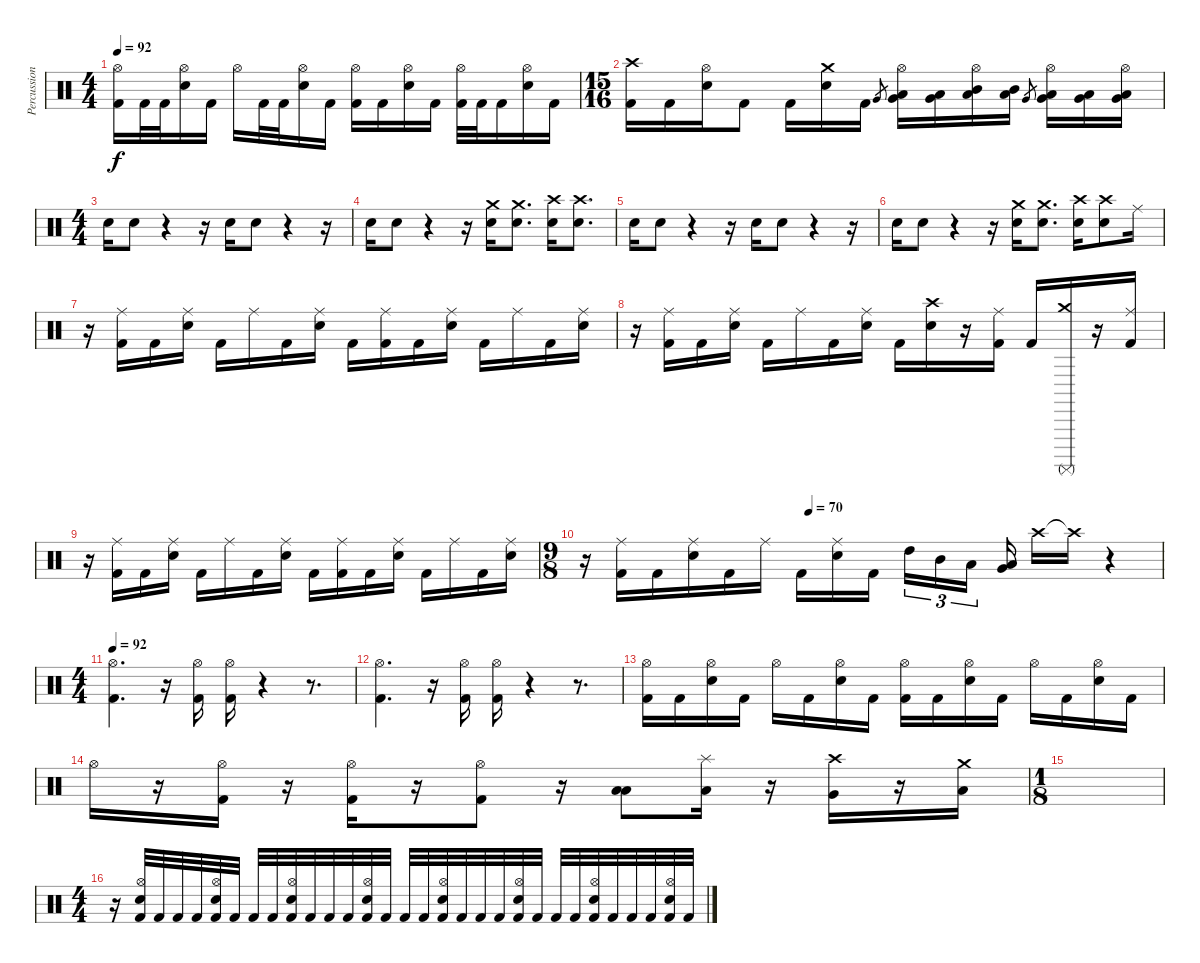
\track ("Percussion" "Percussion") {instrument percussion}
\staff {score}
\articulation defaults
\ts (4 4)
\tempo 92
\clef neutral
\ks c
("Kick (hit) 2" "Hi-Hat (open)").16{dy f} "Kick (hit) 2".32 "Kick (hit) 2".32 ("Electric Snare (hit)" "Hi-Hat (open)").16 "Kick (hit) 2".16 "Hi-Hat (open)".16 "Kick (hit) 2".32 "Kick (hit) 2".32 ("Electric Snare (hit)" "Hi-Hat (open)").16 "Kick (hit) 2".16 ("Kick (hit) 2" "Hi-Hat (open)").16 "Kick (hit) 2".16 ("Electric Snare (hit)" "Hi-Hat (open)").16 "Kick (hit) 2".16 ("Kick (hit) 2" "Hi-Hat (open)").32 "Kick (hit) 2".32 "Kick (hit) 2".16 ("Electric Snare (hit)" "Hi-Hat (open)").16 "Kick (hit) 2".16 |
\ts (15 16)
("Kick (hit) 2" "Crash high (hit)").16 "Kick (hit) 2".16 ("Electric Snare (hit)" "Hi-Hat (open)").16 "Kick (hit) 2".8 "Kick (hit) 2".16 ("Electric Snare (hit)" "Crash medium (hit)").16 "Kick (hit) 2".16 "Very Low Tom (hit)".8{gr} ("Low Tom (hit)" "Very Low Tom (hit)" "Hi-Hat (open)").16 ("Low Tom (hit)" "Very Low Tom (hit)").16 ("Mid Tom (hit)" "Low Floor Tom (hit)" "Hi-Hat (open)").16 ("Mid Tom (hit)" "Low Floor Tom (hit)").16 "Very Low Tom (hit)".8{gr} ("Low Tom (hit)" "Very Low Tom (hit)" "Hi-Hat (open)").16 ("Low Tom (hit)" "Very Low Tom (hit)").16 ("Low Floor Tom (hit)" "Very Low Tom (hit)" "Hi-Hat (open)").16 |
\ts (4 4)
"Snare (hit) 2".16 "Snare (hit) 2".8 r.4 r.16 "Snare (hit) 2".16 "Snare (hit) 2".8 r.4 r.16 |
"Snare (hit) 2".16 "Snare (hit) 2".8 r.4 r.16 ("Crash medium (hit)" "Snare (hit) 2").16 ("Crash medium (hit)" "Snare (hit) 2").8{d} ("Crash high (hit)" "Snare (hit) 2").16 ("Crash high (hit)" "Snare (hit) 2").8{d} |
"Snare (hit) 2".16 "Snare (hit) 2".8 r.4 r.16 "Snare (hit) 2".16 "Snare (hit) 2".8 r.4 r.16 |
"Snare (hit) 2".16 "Snare (hit) 2".8 r.4 r.16 ("Crash medium (hit)" "Snare (hit) 2").16 ("Crash medium (hit)" "Snare (hit) 2").8{d} ("Crash high (hit)" "Snare (hit) 2").16 ("Crash high (hit)" "Snare (hit) 2").8 "Ride (middle)".16 |
r.16 ("Kick (hit) 2" "Ride (middle)").16 "Kick (hit) 2".16 ("Electric Snare (hit)" "Ride (middle)").16 "Kick (hit) 2".16 "Ride (middle)".16 "Kick (hit) 2".16 ("Electric Snare (hit)" "Ride (middle)").16 "Kick (hit) 2".16 ("Kick (hit) 2" "Ride (middle)").16 "Kick (hit) 2".16 ("Electric Snare (hit)" "Ride (middle)").16 "Kick (hit) 2".16 "Ride (middle)".16 "Kick (hit) 2".16 ("Electric Snare (hit)" "Ride (middle)").16 |
r.16 ("Kick (hit) 2" "Ride (middle)").16 "Kick (hit) 2".16 ("Electric Snare (hit)" "Ride (middle)").16 "Kick (hit) 2".16 "Ride (middle)".16 "Kick (hit) 2".16 ("Electric Snare (hit)" "Ride (middle)").16 "Kick (hit) 2".16 ("Electric Snare (hit)" "Crash high (hit)").16 r.16 ("Kick (hit) 2" "Ride (middle)").16 "Kick (hit) 2".16 ("Surdo (mute)" "Crash medium (hit)").16 r.16 ("Kick (hit) 2" "Ride (middle)").16 |
r.16 ("Kick (hit) 2" "Ride (middle)").16 "Kick (hit) 2".16 ("Electric Snare (hit)" "Ride (middle)").16 "Kick (hit) 2".16 "Ride (middle)".16 "Kick (hit) 2".16 ("Electric Snare (hit)" "Ride (middle)").16 "Kick (hit) 2".16 ("Kick (hit) 2" "Ride (middle)").16 "Kick (hit) 2".16 ("Electric Snare (hit)" "Ride (middle)").16 "Kick (hit) 2".16 "Ride (middle)".16 "Kick (hit) 2".16 ("Electric Snare (hit)" "Ride (middle)").16 |
\ts (9 8)
\tempo (70 0.3888888888888889)
r.16 ("Kick (hit) 2" "Ride (middle)").16 "Kick (hit) 2".16 ("Electric Snare (hit)" "Ride (middle)").16 "Kick (hit) 2".16 "Ride (middle)".16 "Kick (hit) 2".16 ("Electric Snare (hit)" "Ride (middle)").16 "Kick (hit) 2".16{beam splitsecondary} "High Tom (hit)".16{tu (3 2)} "Mid Tom (hit)".16{tu (3 2)} "Low Tom (hit)".16{tu (3 2) beam splitsecondary} ("Very Low Tom (hit)" "Low Floor Tom (hit)").16 "Crash high (hit)".16 "Crash high (hit)"{t}.16 r.4 |
\ts (4 4)
\tempo 92
("Hi-Hat (open)" "Kick (hit) 2").4{d} r.16 ("Kick (hit) 2" "Hi-Hat (open)").16 ("Kick (hit) 2" "Hi-Hat (open)").16 r.4 r.8{d} |
("Hi-Hat (open)" "Kick (hit) 2").4{d} r.16 ("Kick (hit) 2" "Hi-Hat (open)").16 ("Kick (hit) 2" "Hi-Hat (open)").16 r.4 r.8{d} |
("Kick (hit) 2" "Hi-Hat (open)").16 "Kick (hit) 2".16 ("Electric Snare (hit)" "Hi-Hat (open)").16 "Kick (hit) 2".16 "Hi-Hat (open)".16 "Kick (hit) 2".16 ("Electric Snare (hit)" "Hi-Hat (open)").16 "Kick (hit) 2".16 ("Kick (hit) 2" "Hi-Hat (open)").16 "Kick (hit) 2".16 ("Electric Snare (hit)" "Hi-Hat (open)").16 "Kick (hit) 2".16 "Hi-Hat (open)".16 "Kick (hit) 2".16 ("Electric Snare (hit)" "Hi-Hat (open)").16 "Kick (hit) 2".16 |
"Hi-Hat (open)".16 r.16 ("Kick (hit) 2" "Hi-Hat (open)").16 r.16 ("Kick (hit) 2" "Hi-Hat (open)").16 r.16 ("Kick (hit) 2" "Hi-Hat (open)").8 r.16 ("Low Tom (hit)" "Low Tom (hit)").8 ("Low Tom (hit)" "Splash (hit)").16 r.16 ("Very Low Tom (hit)" "Crash high (hit)").16 r.16 ("Low Tom (hit)" "Crash medium (hit)").16 |
\ts (1 8)
|
\ts (4 4)
r.16 ("Kick (hit) 2" "Electric Snare (hit)" "Hi-Hat (open)").32 "Kick (hit) 2".32 "Kick (hit) 2".32 "Kick (hit) 2".32 ("Kick (hit) 2" "Electric Snare (hit)" "Hi-Hat (open)").32 "Kick (hit) 2".32 "Kick (hit) 2".32 "Kick (hit) 2".32 ("Kick (hit) 2" "Electric Snare (hit)" "Hi-Hat (open)").32 "Kick (hit) 2".32 "Kick (hit) 2".32 "Kick (hit) 2".32 ("Kick (hit) 2" "Electric Snare (hit)" "Hi-Hat (open)").32 "Kick (hit) 2".32 "Kick (hit) 2".32 "Kick (hit) 2".32 ("Kick (hit) 2" "Electric Snare (hit)" "Hi-Hat (open)").32 "Kick (hit) 2".32 "Kick (hit) 2".32 "Kick (hit) 2".32 ("Kick (hit) 2" "Electric Snare (hit)" "Hi-Hat (open)").32 "Kick (hit) 2".32 "Kick (hit) 2".32 "Kick (hit) 2".32 ("Kick (hit) 2" "Electric Snare (hit)" "Hi-Hat (open)").32 "Kick (hit) 2".32 "Kick (hit) 2".32 "Kick (hit) 2".32 ("Kick (hit) 2" "Hi-Hat (open)" "Electric Snare (hit)").32 "Kick (hit) 2".32
